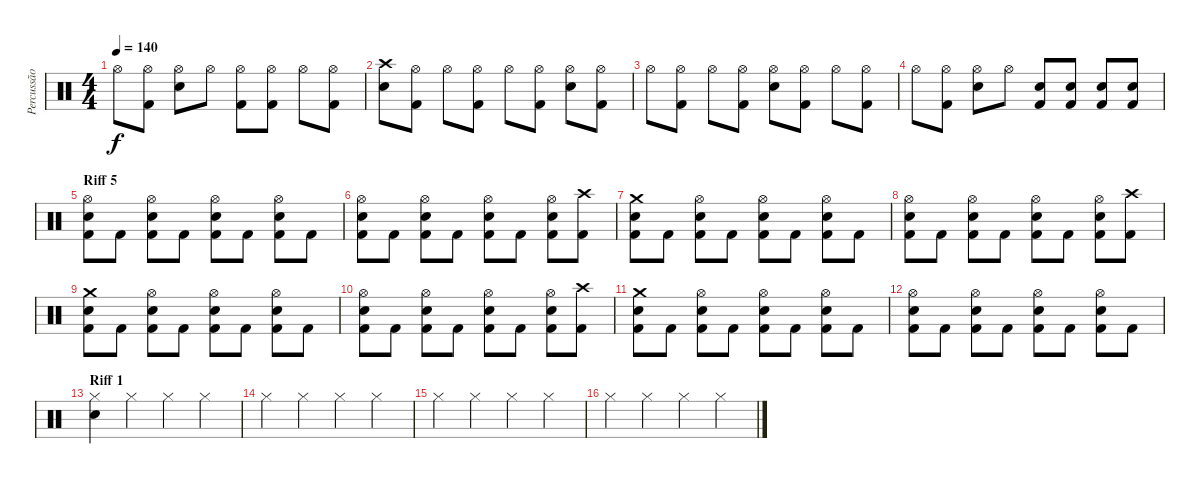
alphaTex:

\track ("Percussão" "Percussão") {instrument percussion}
\staff {score}
\articulation defaults
\ts (4 4)
\tempo 140
\clef neutral
\ks c "Hi-Hat (open)".8{dy f}
("Hi-Hat (open)" "Kick (hit) 2").8 ("Hi-Hat (open)" "Snare (hit) 2").8 "Hi-Hat (open)".8 ("Hi-Hat (open)" "Kick (hit) 2").8 ("Hi-Hat (open)" "Kick (hit) 2").8 "Hi-Hat (open)".8 ("Hi-Hat (open)" "Kick (hit) 2").8 |
("Crash high (hit)" "Snare (hit) 2").8 ("Hi-Hat (open)" "Kick (hit) 2").8 "Hi-Hat (open)".8 ("Hi-Hat (open)" "Kick (hit) 2").8 "Hi-Hat (open)".8 ("Hi-Hat (open)" "Kick (hit) 2").8 ("Hi-Hat (open)" "Snare (hit) 2").8 ("Hi-Hat (open)" "Kick (hit) 2").8 |
"Hi-Hat (open)".8 ("Hi-Hat (open)" "Kick (hit) 2").8 "Hi-Hat (open)".8 ("Hi-Hat (open)" "Kick (hit) 2").8 ("Hi-Hat (open)" "Snare (hit) 2").8 ("Hi-Hat (open)" "Kick (hit) 2").8 "Hi-Hat (open)".8 ("Hi-Hat (open)" "Kick (hit) 2").8 |
"Hi-Hat (open)".8 ("Hi-Hat (open)" "Kick (hit) 2").8 ("Hi-Hat (open)" "Snare (hit) 2").8 "Hi-Hat (open)".8 ("Snare (hit) 2" "Kick (hit) 2").8 ("Snare (hit) 2" "Kick (hit) 2").8 ("Snare (hit) 2" "Kick (hit) 2").8 ("Snare (hit) 2" "Kick (hit) 2").8 |
\section ("" "Riff 5")
("Hi-Hat (open)" "Snare (hit) 2" "Kick (hit) 2").8 "Kick (hit) 2".8 ("Hi-Hat (open)" "Snare (hit) 2" "Kick (hit) 2").8 "Kick (hit) 2".8 ("Hi-Hat (open)" "Snare (hit) 2" "Kick (hit) 2").8 "Kick (hit) 2".8 ("Hi-Hat (open)" "Snare (hit) 2" "Kick (hit) 2").8 "Kick (hit) 2".8 |
("Hi-Hat (open)" "Snare (hit) 2" "Kick (hit) 2").8 "Kick (hit) 2".8 ("Hi-Hat (open)" "Snare (hit) 2" "Kick (hit) 2").8 "Kick (hit) 2".8 ("Hi-Hat (open)" "Snare (hit) 2" "Kick (hit) 2").8 "Kick (hit) 2".8 ("Hi-Hat (open)" "Snare (hit) 2" "Kick (hit) 2").8 ("Crash high (hit)" "Kick (hit) 2").8 |
("Crash medium (hit)" "Snare (hit) 2" "Kick (hit) 2").8 "Kick (hit) 2".8 ("Hi-Hat (open)" "Snare (hit) 2" "Kick (hit) 2").8 "Kick (hit) 2".8 ("Hi-Hat (open)" "Snare (hit) 2" "Kick (hit) 2").8 "Kick (hit) 2".8 ("Hi-Hat (open)" "Snare (hit) 2" "Kick (hit) 2").8 "Kick (hit) 2".8 |
("Hi-Hat (open)" "Snare (hit) 2" "Kick (hit) 2").8 "Kick (hit) 2".8 ("Hi-Hat (open)" "Snare (hit) 2" "Kick (hit) 2").8 "Kick (hit) 2".8 ("Hi-Hat (open)" "Snare (hit) 2" "Kick (hit) 2").8 "Kick (hit) 2".8 ("Hi-Hat (open)" "Snare (hit) 2" "Kick (hit) 2").8 ("Crash high (hit)" "Kick (hit) 2").8 |
("Crash medium (hit)" "Snare (hit) 2" "Kick (hit) 2").8 "Kick (hit) 2".8 ("Hi-Hat (open)" "Snare (hit) 2" "Kick (hit) 2").8 "Kick (hit) 2".8 ("Hi-Hat (open)" "Snare (hit) 2" "Kick (hit) 2").8 "Kick (hit) 2".8 ("Hi-Hat (open)" "Snare (hit) 2" "Kick (hit) 2").8 "Kick (hit) 2".8 |
("Hi-Hat (open)" "Snare (hit) 2" "Kick (hit) 2").8 "Kick (hit) 2".8 ("Hi-Hat (open)" "Snare (hit) 2" "Kick (hit) 2").8 "Kick (hit) 2".8 ("Hi-Hat (open)" "Snare (hit) 2" "Kick (hit) 2").8 "Kick (hit) 2".8 ("Hi-Hat (open)" "Snare (hit) 2" "Kick (hit) 2").8 ("Crash high (hit)" "Kick (hit) 2").8 |
("Crash medium (hit)" "Snare (hit) 2" "Kick (hit) 2").8 "Kick (hit) 2".8 ("Hi-Hat (open)" "Snare (hit) 2" "Kick (hit) 2").8 "Kick (hit) 2".8 ("Hi-Hat (open)" "Snare (hit) 2" "Kick (hit) 2").8 "Kick (hit) 2".8 ("Hi-Hat (open)" "Snare (hit) 2" "Kick (hit) 2").8 "Kick (hit) 2".8 |
("Hi-Hat (open)" "Snare (hit) 2" "Kick (hit) 2").8 "Kick (hit) 2".8 ("Hi-Hat (open)" "Snare (hit) 2" "Kick (hit) 2").8 "Kick (hit) 2".8 ("Hi-Hat (open)" "Snare (hit) 2" "Kick (hit) 2").8 "Kick (hit) 2".8 ("Hi-Hat (open)" "Snare (hit) 2" "Kick (hit) 2").8 "Kick (hit) 2".8 |
\section ("" "Riff 1")
("Hi-Hat (closed)" "Snare (hit) 2").4 "Hi-Hat (closed)".4 "Hi-Hat (closed)".4 "Hi-Hat (closed)".4 |
"Hi-Hat (closed)".4 "Hi-Hat (closed)".4 "Hi-Hat (closed)".4 "Hi-Hat (closed)".4 |
"Hi-Hat (closed)".4 "Hi-Hat (closed)".4 "Hi-Hat (closed)".4 "Hi-Hat (closed)".4 |
"Hi-Hat (closed)".4 "Hi-Hat (closed)".4 "Hi-Hat (closed)".4 "Hi-Hat (closed)".4
